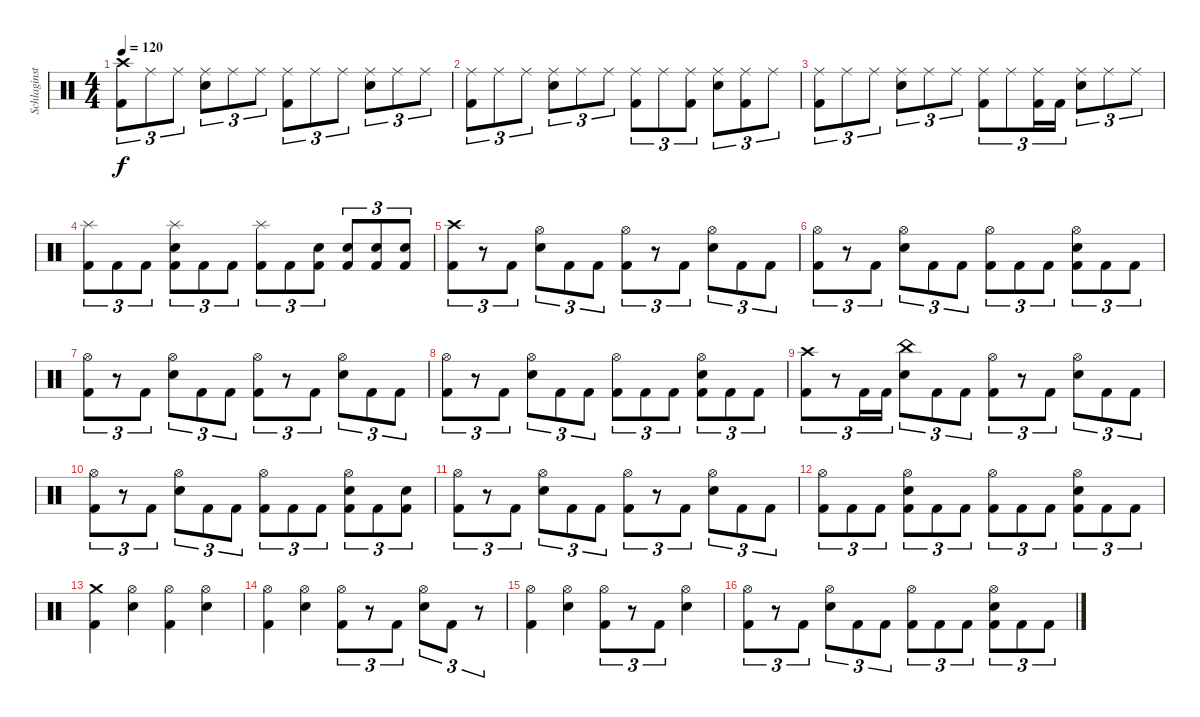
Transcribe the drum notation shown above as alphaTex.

\track ("Schlaginstrumente - Auswahl" "Schlaginst") {instrument percussion}
\staff {score}
\articulation defaults
\ts (4 4)
\tempo 120
\clef neutral
\ks c
("Crash high (hit)" "Kick (hit) 2").8{tu (3 2) dy f} "Ride (middle)".8{tu (3 2)} "Ride (middle)".8{tu (3 2)} ("Ride (middle)" "Electric Snare (hit)").8{tu (3 2)} "Ride (middle)".8{tu (3 2)} "Ride (middle)".8{tu (3 2)} ("Ride (middle)" "Kick (hit) 2").8{tu (3 2)} "Ride (middle)".8{tu (3 2)} "Ride (middle)".8{tu (3 2)} ("Ride (middle)" "Electric Snare (hit)").8{tu (3 2)} "Ride (middle)".8{tu (3 2)} "Ride (middle)".8{tu (3 2)} |
("Ride (middle)" "Kick (hit) 2").8{tu (3 2)} "Ride (middle)".8{tu (3 2)} "Ride (middle)".8{tu (3 2)} ("Ride (middle)" "Electric Snare (hit)").8{tu (3 2)} "Ride (middle)".8{tu (3 2)} "Ride (middle)".8{tu (3 2)} ("Ride (middle)" "Kick (hit) 2").8{tu (3 2)} "Ride (middle)".8{tu (3 2)} ("Ride (middle)" "Kick (hit) 2").8{tu (3 2)} ("Ride (middle)" "Electric Snare (hit)").8{tu (3 2)} ("Ride (middle)" "Kick (hit) 2").8{tu (3 2)} "Ride (middle)".8{tu (3 2)} |
("Ride (middle)" "Kick (hit) 2").8{tu (3 2)} "Ride (middle)".8{tu (3 2)} "Ride (middle)".8{tu (3 2)} ("Ride (middle)" "Electric Snare (hit)").8{tu (3 2)} "Ride (middle)".8{tu (3 2)} "Ride (middle)".8{tu (3 2)} ("Ride (middle)" "Kick (hit) 2").8{tu (3 2)} "Ride (middle)".8{tu (3 2)} ("Ride (middle)" "Kick (hit) 2").16{tu (3 2)} "Kick (hit) 2".16{tu (3 2)} ("Ride (middle)" "Electric Snare (hit)").8{tu (3 2)} "Ride (middle)".8{tu (3 2)} "Ride (middle)".8{tu (3 2)} |
("Splash (hit)" "Kick (hit) 2").8{tu (3 2)} "Kick (hit) 2".8{tu (3 2)} "Kick (hit) 2".8{tu (3 2)} ("Splash (hit)" "Electric Snare (hit)" "Kick (hit) 2").8{tu (3 2)} "Kick (hit) 2".8{tu (3 2)} "Kick (hit) 2".8{tu (3 2)} ("Splash (hit)" "Kick (hit) 2").8{tu (3 2)} "Kick (hit) 2".8{tu (3 2)} ("Electric Snare (hit)" "Kick (hit) 2").8{tu (3 2)} ("Electric Snare (hit)" "Kick (hit) 2").8{tu (3 2)} ("Electric Snare (hit)" "Kick (hit) 2").8{tu (3 2)} ("Electric Snare (hit)" "Kick (hit) 2").8{tu (3 2)} |
("Crash high (hit)" "Kick (hit) 2").8{tu (3 2)} r.8{tu (3 2)} "Kick (hit) 2".8{tu (3 2)} ("Hi-Hat (open)" "Electric Snare (hit)").8{tu (3 2)} "Kick (hit) 2".8{tu (3 2)} "Kick (hit) 2".8{tu (3 2)} ("Hi-Hat (open)" "Kick (hit) 2").8{tu (3 2)} r.8{tu (3 2)} "Kick (hit) 2".8{tu (3 2)} ("Hi-Hat (open)" "Electric Snare (hit)").8{tu (3 2)} "Kick (hit) 2".8{tu (3 2)} "Kick (hit) 2".8{tu (3 2)} |
("Hi-Hat (open)" "Kick (hit) 2").8{tu (3 2)} r.8{tu (3 2)} "Kick (hit) 2".8{tu (3 2)} ("Hi-Hat (open)" "Electric Snare (hit)").8{tu (3 2)} "Kick (hit) 2".8{tu (3 2)} "Kick (hit) 2".8{tu (3 2)} ("Hi-Hat (open)" "Kick (hit) 2").8{tu (3 2)} "Kick (hit) 2".8{tu (3 2)} "Kick (hit) 2".8{tu (3 2)} ("Hi-Hat (open)" "Electric Snare (hit)" "Kick (hit) 2").8{tu (3 2)} "Kick (hit) 2".8{tu (3 2)} "Kick (hit) 2".8{tu (3 2)} |
("Hi-Hat (open)" "Kick (hit) 2").8{tu (3 2)} r.8{tu (3 2)} "Kick (hit) 2".8{tu (3 2)} ("Hi-Hat (open)" "Electric Snare (hit)").8{tu (3 2)} "Kick (hit) 2".8{tu (3 2)} "Kick (hit) 2".8{tu (3 2)} ("Hi-Hat (open)" "Kick (hit) 2").8{tu (3 2)} r.8{tu (3 2)} "Kick (hit) 2".8{tu (3 2)} ("Hi-Hat (open)" "Electric Snare (hit)").8{tu (3 2)} "Kick (hit) 2".8{tu (3 2)} "Kick (hit) 2".8{tu (3 2)} |
("Hi-Hat (open)" "Kick (hit) 2").8{tu (3 2)} r.8{tu (3 2)} "Kick (hit) 2".8{tu (3 2)} ("Hi-Hat (open)" "Electric Snare (hit)").8{tu (3 2)} "Kick (hit) 2".8{tu (3 2)} "Kick (hit) 2".8{tu (3 2)} ("Hi-Hat (open)" "Kick (hit) 2").8{tu (3 2)} "Kick (hit) 2".8{tu (3 2)} "Kick (hit) 2".8{tu (3 2)} ("Hi-Hat (open)" "Electric Snare (hit)" "Kick (hit) 2").8{tu (3 2)} "Kick (hit) 2".8{tu (3 2)} "Kick (hit) 2".8{tu (3 2)} |
("Crash high (hit)" "Kick (hit) 2").8{tu (3 2)} r.8{tu (3 2)} "Kick (hit) 2".16{tu (3 2)} "Kick (hit) 2".16{tu (3 2)} ("China (hit)" "Electric Snare (hit)").8{tu (3 2)} "Kick (hit) 2".8{tu (3 2)} "Kick (hit) 2".8{tu (3 2)} ("Hi-Hat (open)" "Kick (hit) 2").8{tu (3 2)} r.8{tu (3 2)} "Kick (hit) 2".8{tu (3 2)} ("Hi-Hat (open)" "Electric Snare (hit)").8{tu (3 2)} "Kick (hit) 2".8{tu (3 2)} "Kick (hit) 2".8{tu (3 2)} |
("Hi-Hat (open)" "Kick (hit) 2").8{tu (3 2)} r.8{tu (3 2)} "Kick (hit) 2".8{tu (3 2)} ("Hi-Hat (open)" "Electric Snare (hit)").8{tu (3 2)} "Kick (hit) 2".8{tu (3 2)} "Kick (hit) 2".8{tu (3 2)} ("Hi-Hat (open)" "Kick (hit) 2").8{tu (3 2)} "Kick (hit) 2".8{tu (3 2)} "Kick (hit) 2".8{tu (3 2)} ("Hi-Hat (open)" "Electric Snare (hit)" "Kick (hit) 2").8{tu (3 2)} "Kick (hit) 2".8{tu (3 2)} ("Electric Snare (hit)" "Kick (hit) 2").8{tu (3 2)} |
("Hi-Hat (open)" "Kick (hit) 2").8{tu (3 2)} r.8{tu (3 2)} "Kick (hit) 2".8{tu (3 2)} ("Hi-Hat (open)" "Electric Snare (hit)").8{tu (3 2)} "Kick (hit) 2".8{tu (3 2)} "Kick (hit) 2".8{tu (3 2)} ("Hi-Hat (open)" "Kick (hit) 2").8{tu (3 2)} r.8{tu (3 2)} "Kick (hit) 2".8{tu (3 2)} ("Hi-Hat (open)" "Electric Snare (hit)").8{tu (3 2)} "Kick (hit) 2".8{tu (3 2)} "Kick (hit) 2".8{tu (3 2)} |
("Hi-Hat (open)" "Kick (hit) 2").8{tu (3 2)} "Kick (hit) 2".8{tu (3 2)} "Kick (hit) 2".8{tu (3 2)} ("Hi-Hat (open)" "Electric Snare (hit)" "Kick (hit) 2").8{tu (3 2)} "Kick (hit) 2".8{tu (3 2)} "Kick (hit) 2".8{tu (3 2)} ("Hi-Hat (open)" "Kick (hit) 2").8{tu (3 2)} "Kick (hit) 2".8{tu (3 2)} "Kick (hit) 2".8{tu (3 2)} ("Hi-Hat (open)" "Electric Snare (hit)" "Kick (hit) 2").8{tu (3 2)} "Kick (hit) 2".8{tu (3 2)} "Kick (hit) 2".8{tu (3 2)} |
("Crash medium (hit)" "Kick (hit) 2").4 ("Hi-Hat (open)" "Electric Snare (hit)").4 ("Hi-Hat (open)" "Kick (hit) 2").4 ("Hi-Hat (open)" "Electric Snare (hit)").4 |
("Hi-Hat (open)" "Kick (hit) 2").4 ("Hi-Hat (open)" "Electric Snare (hit)").4 ("Hi-Hat (open)" "Kick (hit) 2").8{tu (3 2)} r.8{tu (3 2)} "Kick (hit) 2".8{tu (3 2)} ("Hi-Hat (open)" "Electric Snare (hit)").8{tu (3 2)} "Kick (hit) 2".8{tu (3 2)} r.8{tu (3 2)} |
("Hi-Hat (open)" "Kick (hit) 2").4 ("Hi-Hat (open)" "Electric Snare (hit)").4 ("Hi-Hat (open)" "Kick (hit) 2").8{tu (3 2)} r.8{tu (3 2)} "Kick (hit) 2".8{tu (3 2)} ("Hi-Hat (open)" "Electric Snare (hit)").4 |
("Hi-Hat (open)" "Kick (hit) 2").8{tu (3 2)} r.8{tu (3 2)} "Kick (hit) 2".8{tu (3 2)} ("Hi-Hat (open)" "Electric Snare (hit)").8{tu (3 2)} "Kick (hit) 2".8{tu (3 2)} "Kick (hit) 2".8{tu (3 2)} ("Hi-Hat (open)" "Kick (hit) 2").8{tu (3 2)} "Kick (hit) 2".8{tu (3 2)} "Kick (hit) 2".8{tu (3 2)} ("Hi-Hat (open)" "Electric Snare (hit)" "Kick (hit) 2").8{tu (3 2)} "Kick (hit) 2".8{tu (3 2)} "Kick (hit) 2".8{tu (3 2)}
